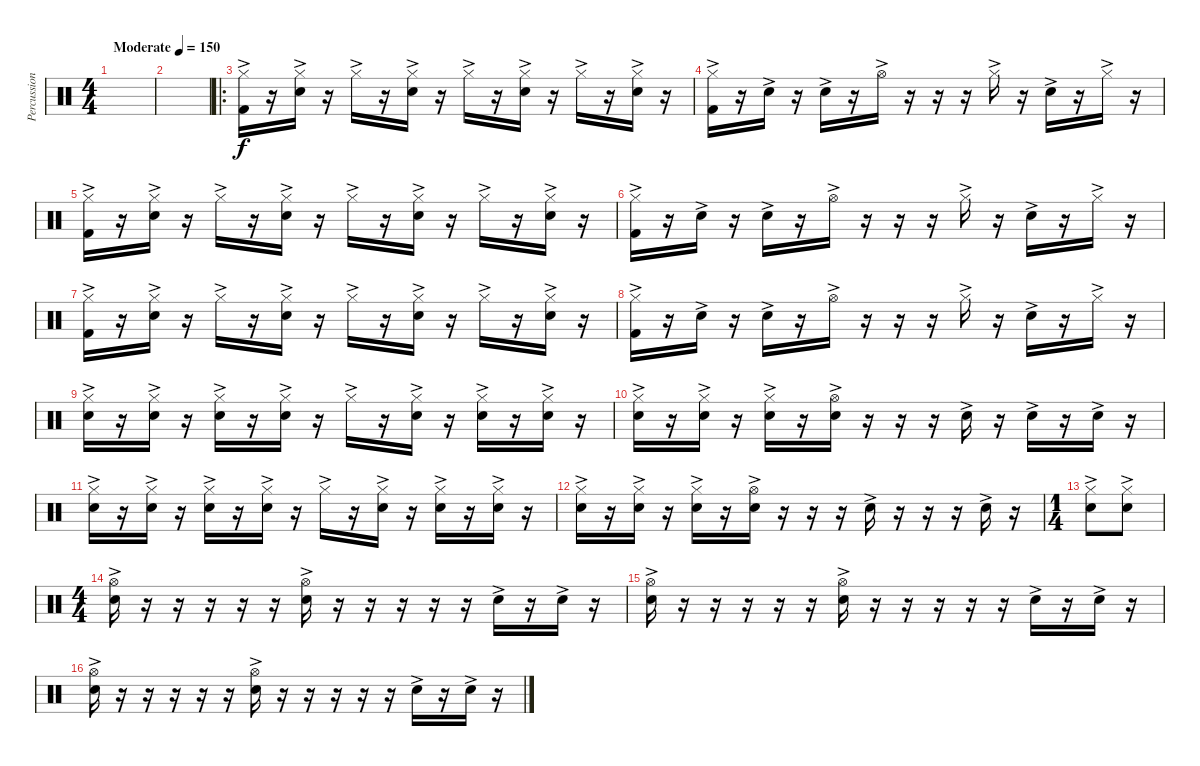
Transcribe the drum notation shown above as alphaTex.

\track ("Percussion" "Percussion") {instrument percussion}
\staff {score}
\articulation defaults
\ts (4 4)
\tempo (150 "Moderate")
\clef neutral
\ks c
|
|
\ro
("Hi-Hat (closed)"{ac} "Kick (hit) 2"{ac}).16 r.16 ("Hi-Hat (closed)"{ac} "Snare (hit) 2"{ac}).16 r.16 "Hi-Hat (closed)"{ac}.16 r.16 ("Hi-Hat (closed)"{ac} "Snare (hit) 2"{ac}).16 r.16 "Hi-Hat (closed)"{ac}.16 r.16 ("Hi-Hat (closed)"{ac} "Snare (hit) 2"{ac}).16 r.16 "Hi-Hat (closed)"{ac}.16 r.16 ("Hi-Hat (closed)"{ac} "Snare (hit) 2"{ac}).16 r.16 |
("Hi-Hat (closed)"{ac} "Kick (hit) 2"{ac}).16 r.16 "Snare (hit) 2"{ac}.16 r.16 "Snare (hit) 2"{ac}.16 r.16 "Hi-Hat (open)"{ac}.16 r.16 r.16 r.16 "Hi-Hat (closed)"{ac}.16 r.16 "Snare (hit) 2"{ac}.16 r.16 "Hi-Hat (closed)"{ac}.16 r.16 |
("Hi-Hat (closed)"{ac} "Kick (hit) 2"{ac}).16 r.16 ("Hi-Hat (closed)"{ac} "Snare (hit) 2"{ac}).16 r.16 "Hi-Hat (closed)"{ac}.16 r.16 ("Hi-Hat (closed)"{ac} "Snare (hit) 2"{ac}).16 r.16 "Hi-Hat (closed)"{ac}.16 r.16 ("Hi-Hat (closed)"{ac} "Snare (hit) 2"{ac}).16 r.16 "Hi-Hat (closed)"{ac}.16 r.16 ("Hi-Hat (closed)"{ac} "Snare (hit) 2"{ac}).16 r.16 |
("Hi-Hat (closed)"{ac} "Kick (hit) 2"{ac}).16 r.16 "Snare (hit) 2"{ac}.16 r.16 "Snare (hit) 2"{ac}.16 r.16 "Hi-Hat (open)"{ac}.16 r.16 r.16 r.16 "Hi-Hat (closed)"{ac}.16 r.16 "Snare (hit) 2"{ac}.16 r.16 "Hi-Hat (closed)"{ac}.16 r.16 |
("Hi-Hat (closed)"{ac} "Kick (hit) 2"{ac}).16 r.16 ("Hi-Hat (closed)"{ac} "Snare (hit) 2"{ac}).16 r.16 "Hi-Hat (closed)"{ac}.16 r.16 ("Hi-Hat (closed)"{ac} "Snare (hit) 2"{ac}).16 r.16 "Hi-Hat (closed)"{ac}.16 r.16 ("Hi-Hat (closed)"{ac} "Snare (hit) 2"{ac}).16 r.16 "Hi-Hat (closed)"{ac}.16 r.16 ("Hi-Hat (closed)"{ac} "Snare (hit) 2"{ac}).16 r.16 |
("Hi-Hat (closed)"{ac} "Kick (hit) 2"{ac}).16 r.16 "Snare (hit) 2"{ac}.16 r.16 "Snare (hit) 2"{ac}.16 r.16 "Hi-Hat (open)"{ac}.16 r.16 r.16 r.16 "Hi-Hat (closed)"{ac}.16 r.16 "Snare (hit) 2"{ac}.16 r.16 "Hi-Hat (closed)"{ac}.16 r.16 |
("Hi-Hat (closed)"{ac} "Snare (hit) 2"{ac}).16 r.16 ("Hi-Hat (closed)"{ac} "Snare (hit) 2"{ac}).16 r.16 ("Hi-Hat (closed)"{ac} "Snare (hit) 2"{ac}).16 r.16 ("Hi-Hat (closed)"{ac} "Snare (hit) 2"{ac}).16 r.16 "Hi-Hat (closed)"{ac}.16 r.16 ("Hi-Hat (closed)"{ac} "Snare (hit) 2"{ac}).16 r.16 ("Hi-Hat (closed)"{ac} "Snare (hit) 2"{ac}).16 r.16 ("Hi-Hat (closed)"{ac} "Snare (hit) 2"{ac}).16 r.16 |
("Hi-Hat (closed)"{ac} "Snare (hit) 2"{ac}).16 r.16 ("Hi-Hat (closed)"{ac} "Snare (hit) 2"{ac}).16 r.16 ("Hi-Hat (closed)"{ac} "Snare (hit) 2"{ac}).16 r.16 ("Hi-Hat (open)"{ac} "Snare (hit) 2"{ac}).16 r.16 r.16 r.16 "Snare (hit) 2"{ac}.16 r.16 "Snare (hit) 2"{ac}.16 r.16 "Snare (hit) 2"{ac}.16 r.16 |
("Hi-Hat (closed)"{ac} "Snare (hit) 2"{ac}).16 r.16 ("Hi-Hat (closed)"{ac} "Snare (hit) 2"{ac}).16 r.16 ("Hi-Hat (closed)"{ac} "Snare (hit) 2"{ac}).16 r.16 ("Hi-Hat (closed)"{ac} "Snare (hit) 2"{ac}).16 r.16 "Hi-Hat (closed)"{ac}.16 r.16 ("Hi-Hat (closed)"{ac} "Snare (hit) 2"{ac}).16 r.16 ("Hi-Hat (closed)"{ac} "Snare (hit) 2"{ac}).16 r.16 ("Hi-Hat (closed)"{ac} "Snare (hit) 2"{ac}).16 r.16 |
("Hi-Hat (closed)"{ac} "Snare (hit) 2"{ac}).16 r.16 ("Hi-Hat (closed)"{ac} "Snare (hit) 2"{ac}).16 r.16 ("Hi-Hat (closed)"{ac} "Snare (hit) 2"{ac}).16 r.16 ("Hi-Hat (open)"{ac} "Snare (hit) 2"{ac}).16 r.16 r.16 r.16 "Snare (hit) 2"{ac}.16 r.16 r.16 r.16 "Snare (hit) 2"{ac}.16 r.16 |
\ts (1 4)
("Hi-Hat (closed)"{ac} "Snare (hit) 2"{ac}).8 ("Hi-Hat (closed)"{ac} "Snare (hit) 2"{ac}).8 |
\ts (4 4)
("Hi-Hat (open)"{ac} "Snare (hit) 2"{ac}).16 r.16 r.16 r.16 r.16 r.16 ("Hi-Hat (open)"{ac} "Snare (hit) 2"{ac}).16 r.16 r.16 r.16 r.16 r.16 "Snare (hit) 2"{ac}.16 r.16 "Snare (hit) 2"{ac}.16 r.16 |
("Hi-Hat (open)"{ac} "Snare (hit) 2"{ac}).16 r.16 r.16 r.16 r.16 r.16 ("Hi-Hat (open)"{ac} "Snare (hit) 2"{ac}).16 r.16 r.16 r.16 r.16 r.16 "Snare (hit) 2"{ac}.16 r.16 "Snare (hit) 2"{ac}.16 r.16 |
("Hi-Hat (open)"{ac} "Snare (hit) 2"{ac}).16 r.16 r.16 r.16 r.16 r.16 ("Hi-Hat (open)"{ac} "Snare (hit) 2"{ac}).16 r.16 r.16 r.16 r.16 r.16 "Snare (hit) 2"{ac}.16 r.16 "Snare (hit) 2"{ac}.16 r.16
